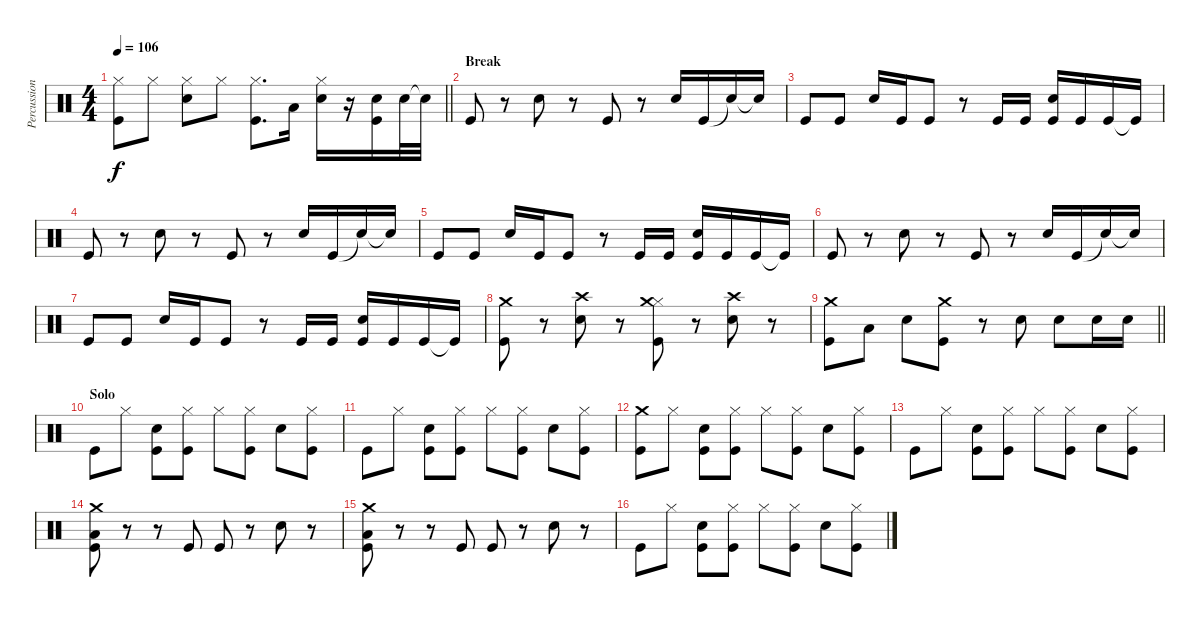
\track ("Percussion" "Percussion") {instrument percussion}
\staff {score}
\articulation defaults
\ts (4 4)
\tempo 106
\clef neutral
\barLineRight lightlight
\ks c
("Kick (hit)" "Hi-Hat (closed)").8{dy f} "Hi-Hat (closed)".8 ("Electric Snare (hit)" "Hi-Hat (closed)").8 "Hi-Hat (closed)".8 ("Kick (hit)" "Hi-Hat (closed)").8{d} "Low Tom (hit)".16 ("Electric Snare (hit)" "Hi-Hat (closed)").16 r.16 ("Kick (hit)" "Electric Snare (hit)").16 "Electric Snare (hit)".32 "Snare (hit)"{t}.32 |
\section ("" "Break")
"Kick (hit)".8 r.8 "Electric Snare (hit)".8 r.8 "Kick (hit)".8 r.8 "Electric Snare (hit)".16 "Kick (hit)".16 "Snare (hit)"{t}.16 "Snare (hit)"{t}.16 |
"Kick (hit)".8 "Kick (hit)".8 "Electric Snare (hit)".16 "Kick (hit)".16 "Kick (hit)".8 r.8 "Kick (hit)".16 "Kick (hit)".16 ("Kick (hit)" "Electric Snare (hit)").16 "Kick (hit)".16 "Kick (hit)".16 "Kick (hit)"{t}.16 |
"Kick (hit)".8 r.8 "Electric Snare (hit)".8 r.8 "Kick (hit)".8 r.8 "Electric Snare (hit)".16 "Kick (hit)".16 "Snare (hit)"{t}.16 "Snare (hit)"{t}.16 |
"Kick (hit)".8 "Kick (hit)".8 "Electric Snare (hit)".16 "Kick (hit)".16 "Kick (hit)".8 r.8 "Kick (hit)".16 "Kick (hit)".16 ("Kick (hit)" "Electric Snare (hit)").16 "Kick (hit)".16 "Kick (hit)".16 "Kick (hit)"{t}.16 |
"Kick (hit)".8 r.8 "Electric Snare (hit)".8 r.8 "Kick (hit)".8 r.8 "Electric Snare (hit)".16 "Kick (hit)".16 "Snare (hit)"{t}.16 "Snare (hit)"{t}.16 |
"Kick (hit)".8 "Kick (hit)".8 "Electric Snare (hit)".16 "Kick (hit)".16 "Kick (hit)".8 r.8 "Kick (hit)".16 "Kick (hit)".16 ("Kick (hit)" "Electric Snare (hit)").16 "Kick (hit)".16 "Kick (hit)".16 "Kick (hit)"{t}.16 |
("Kick (hit)" "Crash medium (hit)").8 r.8 ("Electric Snare (hit)" "Crash high (hit)").8 r.8 ("Kick (hit)" "Hi-Hat (closed)" "Crash medium (hit)").8 r.8 ("Electric Snare (hit)" "Crash high (hit)").8 r.8 |
\barLineRight lightlight
("Kick (hit)" "Crash medium (hit)").8 "Low Tom (hit)".8 "Electric Snare (hit)".8 ("Kick (hit)" "Crash medium (hit)").8 r.8 "Electric Snare (hit)".8 "Electric Snare (hit)".8 "Electric Snare (hit)".16 "Electric Snare (hit)".16 |
\section ("" "Solo")
"Kick (hit)".8 "Hi-Hat (closed)".8 ("Kick (hit)" "Electric Snare (hit)").8 ("Kick (hit)" "Hi-Hat (closed)").8 "Hi-Hat (closed)".8 ("Kick (hit)" "Hi-Hat (closed)").8 "Electric Snare (hit)".8 ("Kick (hit)" "Hi-Hat (closed)").8 |
"Kick (hit)".8 "Hi-Hat (closed)".8 ("Kick (hit)" "Electric Snare (hit)").8 ("Kick (hit)" "Hi-Hat (closed)").8 "Hi-Hat (closed)".8 ("Kick (hit)" "Hi-Hat (closed)").8 "Electric Snare (hit)".8 ("Kick (hit)" "Hi-Hat (closed)").8 |
("Kick (hit)" "Crash medium (hit)").8 "Hi-Hat (closed)".8 ("Kick (hit)" "Electric Snare (hit)").8 ("Kick (hit)" "Hi-Hat (closed)").8 "Hi-Hat (closed)".8 ("Kick (hit)" "Hi-Hat (closed)").8 "Electric Snare (hit)".8 ("Kick (hit)" "Hi-Hat (closed)").8 |
"Kick (hit)".8 "Hi-Hat (closed)".8 ("Kick (hit)" "Electric Snare (hit)").8 ("Kick (hit)" "Hi-Hat (closed)").8 "Hi-Hat (closed)".8 ("Kick (hit)" "Hi-Hat (closed)").8 "Electric Snare (hit)".8 ("Kick (hit)" "Hi-Hat (closed)").8 |
("Kick (hit)" "Low Tom (hit)" "Crash medium (hit)").8 r.8 r.8 "Kick (hit)".8 "Kick (hit)".8 r.8 "Electric Snare (hit)".8 r.8 |
("Kick (hit)" "Low Tom (hit)" "Crash medium (hit)").8 r.8 r.8 "Kick (hit)".8 "Kick (hit)".8 r.8 "Electric Snare (hit)".8 r.8 |
"Kick (hit)".8 "Hi-Hat (closed)".8 ("Kick (hit)" "Electric Snare (hit)").8 ("Kick (hit)" "Hi-Hat (closed)").8 "Hi-Hat (closed)".8 ("Kick (hit)" "Hi-Hat (closed)").8 "Electric Snare (hit)".8 ("Kick (hit)" "Hi-Hat (closed)").8
